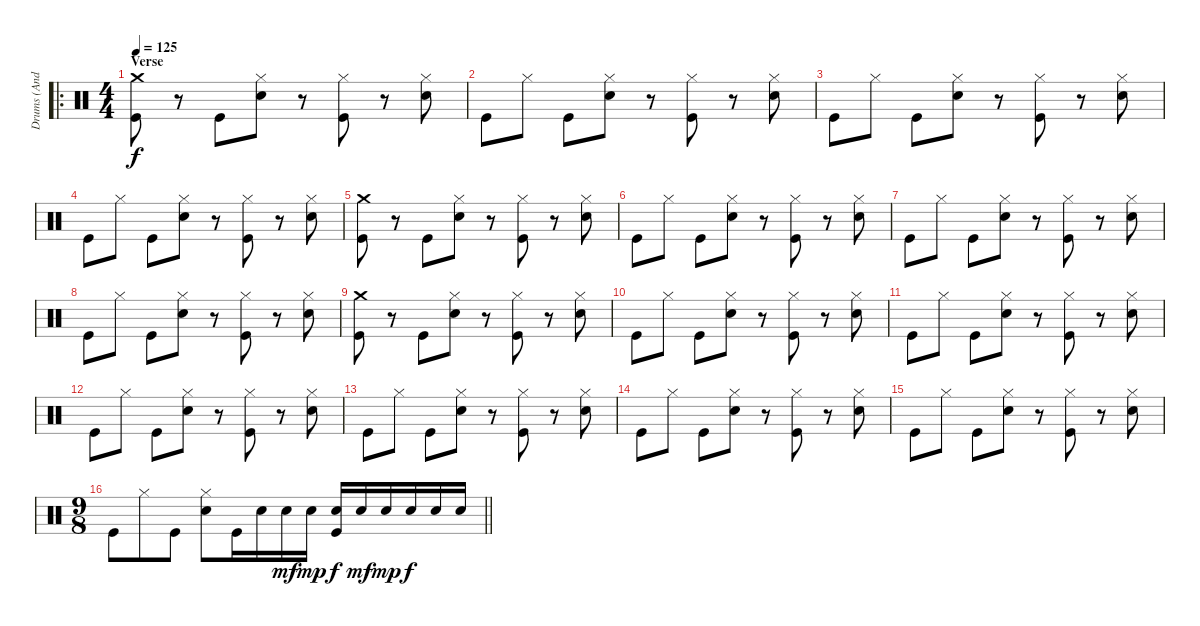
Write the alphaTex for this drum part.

\track ("Drums (Andy Parker)" "Drums (And") {instrument percussion}
\staff {score}
\articulation defaults
\ro
\ts (4 4)
\section ("" "Verse")
\tempo 125
\clef neutral
\ks c
("Crash medium (hit)" "Kick (hit)").8{dy f} r.8 "Kick (hit)".8 ("Hi-Hat (closed)" "Electric Snare (hit)").8 r.8 ("Hi-Hat (closed)" "Kick (hit)").8 r.8 ("Hi-Hat (closed)" "Electric Snare (hit)").8 |
"Kick (hit)".8 "Hi-Hat (closed)".8 "Kick (hit)".8 ("Hi-Hat (closed)" "Electric Snare (hit)").8 r.8 ("Hi-Hat (closed)" "Kick (hit)").8 r.8 ("Hi-Hat (closed)" "Electric Snare (hit)").8 |
"Kick (hit)".8 "Hi-Hat (closed)".8 "Kick (hit)".8 ("Hi-Hat (closed)" "Electric Snare (hit)").8 r.8 ("Hi-Hat (closed)" "Kick (hit)").8 r.8 ("Hi-Hat (closed)" "Electric Snare (hit)").8 |
"Kick (hit)".8 "Hi-Hat (closed)".8 "Kick (hit)".8 ("Hi-Hat (closed)" "Electric Snare (hit)").8 r.8 ("Hi-Hat (closed)" "Kick (hit)").8 r.8 ("Hi-Hat (closed)" "Electric Snare (hit)").8 |
("Crash medium (hit)" "Kick (hit)").8 r.8 "Kick (hit)".8 ("Hi-Hat (closed)" "Electric Snare (hit)").8 r.8 ("Hi-Hat (closed)" "Kick (hit)").8 r.8 ("Hi-Hat (closed)" "Electric Snare (hit)").8 |
"Kick (hit)".8 "Hi-Hat (closed)".8 "Kick (hit)".8 ("Hi-Hat (closed)" "Electric Snare (hit)").8 r.8 ("Hi-Hat (closed)" "Kick (hit)").8 r.8 ("Hi-Hat (closed)" "Electric Snare (hit)").8 |
"Kick (hit)".8 "Hi-Hat (closed)".8 "Kick (hit)".8 ("Hi-Hat (closed)" "Electric Snare (hit)").8 r.8 ("Hi-Hat (closed)" "Kick (hit)").8 r.8 ("Hi-Hat (closed)" "Electric Snare (hit)").8 |
"Kick (hit)".8 "Hi-Hat (closed)".8 "Kick (hit)".8 ("Hi-Hat (closed)" "Electric Snare (hit)").8 r.8 ("Hi-Hat (closed)" "Kick (hit)").8 r.8 ("Hi-Hat (closed)" "Electric Snare (hit)").8 |
("Crash medium (hit)" "Kick (hit)").8 r.8 "Kick (hit)".8 ("Hi-Hat (closed)" "Electric Snare (hit)").8 r.8 ("Hi-Hat (closed)" "Kick (hit)").8 r.8 ("Hi-Hat (closed)" "Electric Snare (hit)").8 |
"Kick (hit)".8 "Hi-Hat (closed)".8 "Kick (hit)".8 ("Hi-Hat (closed)" "Electric Snare (hit)").8 r.8 ("Hi-Hat (closed)" "Kick (hit)").8 r.8 ("Hi-Hat (closed)" "Electric Snare (hit)").8 |
"Kick (hit)".8 "Hi-Hat (closed)".8 "Kick (hit)".8 ("Hi-Hat (closed)" "Electric Snare (hit)").8 r.8 ("Hi-Hat (closed)" "Kick (hit)").8 r.8 ("Hi-Hat (closed)" "Electric Snare (hit)").8 |
"Kick (hit)".8 "Hi-Hat (closed)".8 "Kick (hit)".8 ("Hi-Hat (closed)" "Electric Snare (hit)").8 r.8 ("Hi-Hat (closed)" "Kick (hit)").8 r.8 ("Hi-Hat (closed)" "Electric Snare (hit)").8 |
"Kick (hit)".8 "Hi-Hat (closed)".8 "Kick (hit)".8 ("Hi-Hat (closed)" "Electric Snare (hit)").8 r.8 ("Hi-Hat (closed)" "Kick (hit)").8 r.8 ("Hi-Hat (closed)" "Electric Snare (hit)").8 |
"Kick (hit)".8 "Hi-Hat (closed)".8 "Kick (hit)".8 ("Hi-Hat (closed)" "Electric Snare (hit)").8 r.8 ("Hi-Hat (closed)" "Kick (hit)").8 r.8 ("Hi-Hat (closed)" "Electric Snare (hit)").8 |
"Kick (hit)".8 "Hi-Hat (closed)".8 "Kick (hit)".8 ("Hi-Hat (closed)" "Electric Snare (hit)").8 r.8 ("Hi-Hat (closed)" "Kick (hit)").8 r.8 ("Hi-Hat (closed)" "Electric Snare (hit)").8 |
\ts (9 8)
\barLineRight lightlight "Kick (hit)".8 "Hi-Hat (closed)".8 "Kick (hit)".8
("Hi-Hat (closed)" "Electric Snare (hit)").8 "Kick (hit)".16 "Electric Snare (hit)".16 "Electric Snare (hit)".16{dy mf} "Electric Snare (hit)".16{dy mp} ("Electric Snare (hit)" "Kick (hit)").16{dy f} "Electric Snare (hit)".16{dy mf} "Electric Snare (hit)".16{dy mp} "Electric Snare (hit)".16{dy f} "Electric Snare (hit)".16 "Electric Snare (hit)".16
